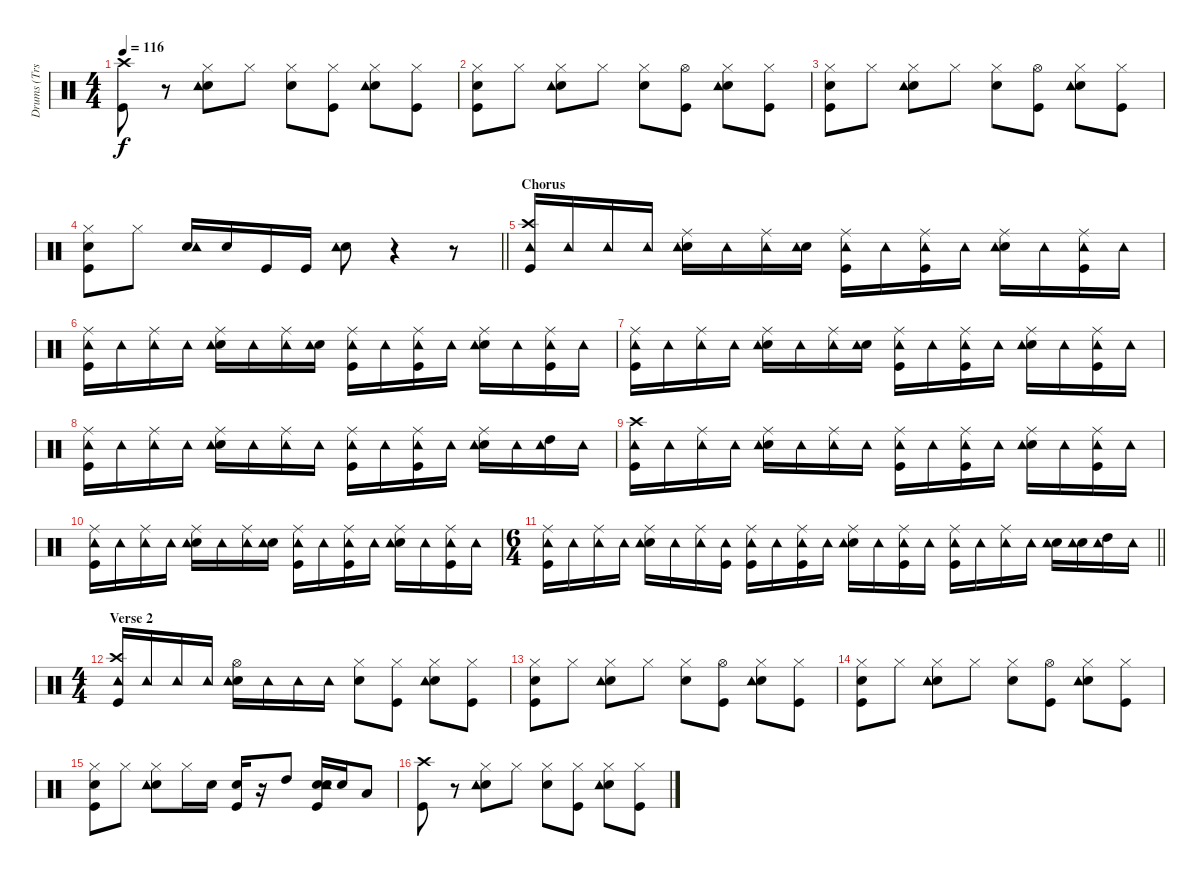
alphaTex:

\track ("Drums (Trs. 7-8A, 10A/7-8B, 10B, 12-13B)" "Drums (Trs") {mute instrument percussion}
\staff {score}
\articulation defaults
\ts (4 4)
\tempo 116
\clef neutral
\ks c
("Kick (hit)" "Crash high (hit)").8{dy f} r.8 ("Electric Snare (hit)" "Hi-Hat (closed)" "Tambourine (hit)").8 "Hi-Hat (closed)".8 ("Hi-Hat (closed)" "Electric Snare (hit)").8 ("Kick (hit)" "Hi-Hat (closed)").8 ("Hi-Hat (closed)" "Electric Snare (hit)" "Tambourine (hit)").8 ("Kick (hit)" "Hi-Hat (closed)").8 |
("Electric Snare (hit)" "Hi-Hat (closed)" "Kick (hit)").8 "Hi-Hat (closed)".8 ("Electric Snare (hit)" "Hi-Hat (closed)" "Tambourine (hit)").8 "Hi-Hat (closed)".8 ("Electric Snare (hit)" "Hi-Hat (closed)").8 ("Hi-Hat (open)" "Kick (hit)").8 ("Hi-Hat (closed)" "Electric Snare (hit)" "Tambourine (hit)").8 ("Kick (hit)" "Hi-Hat (closed)").8 |
("Electric Snare (hit)" "Hi-Hat (closed)" "Kick (hit)").8 "Hi-Hat (closed)".8 ("Electric Snare (hit)" "Hi-Hat (closed)" "Tambourine (hit)").8 "Hi-Hat (closed)".8 ("Hi-Hat (closed)" "Electric Snare (hit)").8 ("Kick (hit)" "Hi-Hat (open)").8 ("Electric Snare (hit)" "Hi-Hat (closed)" "Tambourine (hit)").8 ("Kick (hit)" "Hi-Hat (closed)").8 |
\barLineRight lightlight
("Kick (hit)" "Electric Snare (hit)" "Hi-Hat (closed)").8 "Hi-Hat (closed)".8 ("Electric Snare (hit)" "Tambourine (hit)").16 "Electric Snare (hit)".16 "Kick (hit)".16 "Kick (hit)".16 ("Electric Snare (hit)" "Tambourine (hit)").8 r.4 r.8 |
\section ("" "Chorus")
("Crash high (hit)" "Kick (hit)" "Tambourine (hit)").16 "Tambourine (hit)".16 "Tambourine (hit)".16 "Tambourine (hit)".16 ("Electric Snare (hit)" "Ride (middle)" "Tambourine (hit)").16 "Tambourine (hit)".16 ("Ride (middle)" "Tambourine (hit)").16 ("Electric Snare (hit)" "Tambourine (hit)").16 ("Ride (middle)" "Kick (hit)" "Tambourine (hit)").16 "Tambourine (hit)".16 ("Ride (middle)" "Kick (hit)" "Tambourine (hit)").16 "Tambourine (hit)".16 ("Ride (middle)" "Electric Snare (hit)" "Tambourine (hit)").16 "Tambourine (hit)".16 ("Ride (middle)" "Kick (hit)" "Tambourine (hit)").16 "Tambourine (hit)".16 |
("Ride (middle)" "Kick (hit)" "Tambourine (hit)").16 "Tambourine (hit)".16 ("Ride (middle)" "Tambourine (hit)").16 "Tambourine (hit)".16 ("Electric Snare (hit)" "Ride (middle)" "Tambourine (hit)").16 "Tambourine (hit)".16 ("Ride (middle)" "Tambourine (hit)").16 ("Electric Snare (hit)" "Tambourine (hit)").16 ("Ride (middle)" "Kick (hit)" "Tambourine (hit)").16 "Tambourine (hit)".16 ("Ride (middle)" "Kick (hit)" "Tambourine (hit)").16 "Tambourine (hit)".16 ("Electric Snare (hit)" "Ride (middle)" "Tambourine (hit)").16 "Tambourine (hit)".16 ("Kick (hit)" "Ride (middle)" "Tambourine (hit)").16 "Tambourine (hit)".16 |
("Kick (hit)" "Ride (middle)" "Tambourine (hit)").16 "Tambourine (hit)".16 ("Ride (middle)" "Tambourine (hit)").16 "Tambourine (hit)".16 ("Electric Snare (hit)" "Ride (middle)" "Tambourine (hit)").16 "Tambourine (hit)".16 ("Ride (middle)" "Tambourine (hit)").16 ("Electric Snare (hit)" "Tambourine (hit)").16 ("Ride (middle)" "Kick (hit)" "Tambourine (hit)").16 "Tambourine (hit)".16 ("Ride (middle)" "Kick (hit)" "Tambourine (hit)").16 "Tambourine (hit)".16 ("Electric Snare (hit)" "Ride (middle)" "Tambourine (hit)").16 "Tambourine (hit)".16 ("Ride (middle)" "Kick (hit)" "Tambourine (hit)").16 "Tambourine (hit)".16 |
("Kick (hit)" "Ride (middle)" "Tambourine (hit)").16 "Tambourine (hit)".16 ("Ride (middle)" "Tambourine (hit)").16 "Tambourine (hit)".16 ("Ride (middle)" "Electric Snare (hit)" "Tambourine (hit)").16 "Tambourine (hit)".16 ("Ride (middle)" "Tambourine (hit)").16 "Tambourine (hit)".16 ("Ride (middle)" "Kick (hit)" "Tambourine (hit)").16 "Tambourine (hit)".16 ("Kick (hit)" "Ride (middle)" "Tambourine (hit)").16 "Tambourine (hit)".16 ("Ride (middle)" "Electric Snare (hit)" "Tambourine (hit)").16 "Tambourine (hit)".16 ("High Tom (hit)" "Tambourine (hit)").16 "Tambourine (hit)".16 |
("Crash high (hit)" "Kick (hit)" "Tambourine (hit)").16 "Tambourine (hit)".16 ("Ride (middle)" "Tambourine (hit)").16 "Tambourine (hit)".16 ("Electric Snare (hit)" "Ride (middle)" "Tambourine (hit)").16 "Tambourine (hit)".16 ("Ride (middle)" "Tambourine (hit)").16 "Tambourine (hit)".16 ("Ride (middle)" "Kick (hit)" "Tambourine (hit)").16 "Tambourine (hit)".16 ("Kick (hit)" "Ride (middle)" "Tambourine (hit)").16 "Tambourine (hit)".16 ("Ride (middle)" "Electric Snare (hit)" "Tambourine (hit)").16 "Tambourine (hit)".16 ("Kick (hit)" "Ride (middle)" "Tambourine (hit)").16 "Tambourine (hit)".16 |
("Kick (hit)" "Ride (middle)" "Tambourine (hit)").16 "Tambourine (hit)".16 ("Ride (middle)" "Tambourine (hit)").16 "Tambourine (hit)".16 ("Electric Snare (hit)" "Ride (middle)" "Tambourine (hit)").16 "Tambourine (hit)".16 ("Ride (middle)" "Tambourine (hit)").16 ("Electric Snare (hit)" "Tambourine (hit)").16 ("Kick (hit)" "Ride (middle)" "Tambourine (hit)").16 "Tambourine (hit)".16 ("Ride (middle)" "Kick (hit)" "Tambourine (hit)").16 "Tambourine (hit)".16 ("Electric Snare (hit)" "Ride (middle)" "Tambourine (hit)").16 "Tambourine (hit)".16 ("Kick (hit)" "Ride (middle)" "Tambourine (hit)").16 "Tambourine (hit)".16 |
\ts (6 4)
\barLineRight lightlight
("Kick (hit)" "Ride (middle)" "Tambourine (hit)").16 "Tambourine (hit)".16 ("Ride (middle)" "Tambourine (hit)").16 "Tambourine (hit)".16 ("Ride (middle)" "Electric Snare (hit)" "Tambourine (hit)").16 "Tambourine (hit)".16 ("Ride (middle)" "Tambourine (hit)").16 ("Kick (hit)" "Tambourine (hit)").16 ("Ride (middle)" "Kick (hit)" "Tambourine (hit)").16 "Tambourine (hit)".16 ("Ride (middle)" "Kick (hit)" "Tambourine (hit)").16 "Tambourine (hit)".16 ("Electric Snare (hit)" "Ride (middle)" "Tambourine (hit)").16 "Tambourine (hit)".16 ("Kick (hit)" "Ride (middle)" "Tambourine (hit)").16 "Tambourine (hit)".16 ("Ride (middle)" "Kick (hit)" "Tambourine (hit)").16 "Tambourine (hit)".16 ("Ride (middle)" "Tambourine (hit)").16 "Tambourine (hit)".16 ("Electric Snare (hit)" "Tambourine (hit)").16 ("Electric Snare (hit)" "Tambourine (hit)").16 ("High Tom (hit)" "Tambourine (hit)").16 "Tambourine (hit)".16 |
\ts (4 4)
\section ("" "Verse 2")
("Kick (hit)" "Crash high (hit)" "Tambourine (hit)").16 "Tambourine (hit)".16 "Tambourine (hit)".16 "Tambourine (hit)".16 ("Electric Snare (hit)" "Hi-Hat (open)" "Tambourine (hit)").16 "Tambourine (hit)".16 "Tambourine (hit)".16 "Tambourine (hit)".16 ("Hi-Hat (closed)" "Electric Snare (hit)").8 ("Hi-Hat (closed)" "Kick (hit)").8 ("Hi-Hat (closed)" "Electric Snare (hit)" "Tambourine (hit)").8 ("Kick (hit)" "Hi-Hat (closed)").8 |
("Kick (hit)" "Electric Snare (hit)" "Hi-Hat (closed)").8 "Hi-Hat (closed)".8 ("Hi-Hat (closed)" "Electric Snare (hit)" "Tambourine (hit)").8 "Hi-Hat (closed)".8 ("Hi-Hat (closed)" "Electric Snare (hit)").8 ("Hi-Hat (open)" "Kick (hit)").8 ("Hi-Hat (closed)" "Electric Snare (hit)" "Tambourine (hit)").8 ("Kick (hit)" "Hi-Hat (closed)").8 |
("Hi-Hat (closed)" "Kick (hit)" "Electric Snare (hit)").8 "Hi-Hat (closed)".8 ("Hi-Hat (closed)" "Electric Snare (hit)" "Tambourine (hit)").8 "Hi-Hat (closed)".8 ("Electric Snare (hit)" "Hi-Hat (closed)").8 ("Kick (hit)" "Hi-Hat (open)").8 ("Electric Snare (hit)" "Hi-Hat (closed)" "Tambourine (hit)").8 ("Kick (hit)" "Hi-Hat (closed)").8 |
("Kick (hit)" "Hi-Hat (closed)" "Electric Snare (hit)").8 "Hi-Hat (closed)".8 ("Electric Snare (hit)" "Hi-Hat (closed)" "Tambourine (hit)").8 "Hi-Hat (closed)".16 "Electric Snare (hit)".16 ("Kick (hit)" "Electric Snare (hit)").16 r.16 "High Tom (hit)".8 ("Electric Snare (hit)" "Kick (hit)" "Snare (hit) 2" "Tambourine (hit)").16 "Electric Snare (hit)".16 "Low Tom (hit)".8 |
("Crash high (hit)" "Kick (hit)").8 r.8 ("Electric Snare (hit)" "Hi-Hat (closed)" "Tambourine (hit)").8 "Hi-Hat (closed)".8 ("Hi-Hat (closed)" "Electric Snare (hit)").8 ("Hi-Hat (closed)" "Kick (hit)").8 ("Hi-Hat (closed)" "Electric Snare (hit)" "Tambourine (hit)").8 ("Hi-Hat (closed)" "Kick (hit)").8
